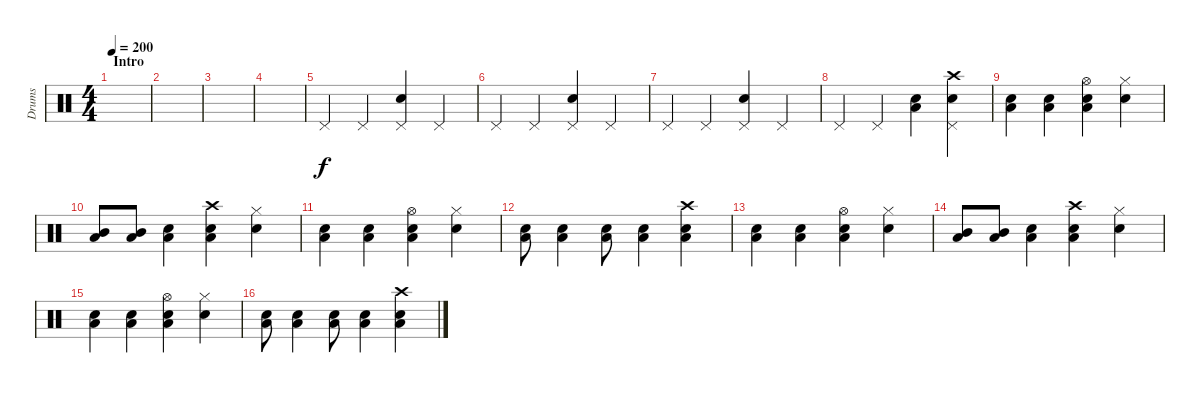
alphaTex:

\track ("Drums" "Drums") {instrument percussion}
\staff {score}
\articulation defaults
\ts (4 4)
\section ("" "Intro")
\tempo 200
\clef neutral
\ks c
|
|
|
|
"Pedal Hi-Hat (hit)".4 "Pedal Hi-Hat (hit)".4 ("Electric Snare (hit)" "Pedal Hi-Hat (hit)").4 "Pedal Hi-Hat (hit)".4 |
"Pedal Hi-Hat (hit)".4 "Pedal Hi-Hat (hit)".4 ("Electric Snare (hit)" "Pedal Hi-Hat (hit)").4 "Pedal Hi-Hat (hit)".4 |
"Pedal Hi-Hat (hit)".4 "Pedal Hi-Hat (hit)".4 ("Electric Snare (hit)" "Pedal Hi-Hat (hit)").4 "Pedal Hi-Hat (hit)".4 |
"Pedal Hi-Hat (hit)".4 "Pedal Hi-Hat (hit)".4 ("Electric Snare (hit)" "Low Tom (hit)").4 ("Electric Snare (hit)" "Pedal Hi-Hat (hit)" "Crash high (hit)").4 |
("Electric Snare (hit)" "Low Tom (hit)").4 ("Electric Snare (hit)" "Low Tom (hit)").4 ("Snare (hit) 2" "Low Tom (hit)" "Hi-Hat (open)").4 ("Electric Snare (hit)" "Hi-Hat (closed)").4 |
("Mid Tom (hit)" "Low Tom (hit)").8 ("Mid Tom (hit)" "Low Tom (hit)").8 ("Snare (hit) 2" "Low Tom (hit)").4 ("Electric Snare (hit)" "Low Tom (hit)" "Crash high (hit)").4 ("Electric Snare (hit)" "Hi-Hat (closed)").4 |
("Electric Snare (hit)" "Low Tom (hit)").4 ("Electric Snare (hit)" "Low Tom (hit)").4 ("Snare (hit) 2" "Low Tom (hit)" "Hi-Hat (open)").4 ("Electric Snare (hit)" "Hi-Hat (closed)").4 |
("Snare (hit) 2" "Low Tom (hit)").8 ("Snare (hit) 2" "Low Tom (hit)").4 ("Snare (hit) 2" "Low Tom (hit)").8 ("Snare (hit) 2" "Low Tom (hit)").4 ("Electric Snare (hit)" "Low Tom (hit)" "Crash high (hit)").4 |
("Electric Snare (hit)" "Low Tom (hit)").4 ("Electric Snare (hit)" "Low Tom (hit)").4 ("Snare (hit) 2" "Low Tom (hit)" "Hi-Hat (open)").4 ("Electric Snare (hit)" "Hi-Hat (closed)").4 |
("Mid Tom (hit)" "Low Tom (hit)").8 ("Mid Tom (hit)" "Low Tom (hit)").8 ("Snare (hit) 2" "Low Tom (hit)").4 ("Electric Snare (hit)" "Low Tom (hit)" "Crash high (hit)").4 ("Electric Snare (hit)" "Hi-Hat (closed)").4 |
("Electric Snare (hit)" "Low Tom (hit)").4 ("Electric Snare (hit)" "Low Tom (hit)").4 ("Snare (hit) 2" "Low Tom (hit)" "Hi-Hat (open)").4 ("Electric Snare (hit)" "Hi-Hat (closed)").4 |
("Snare (hit) 2" "Low Tom (hit)").8 ("Snare (hit) 2" "Low Tom (hit)").4 ("Snare (hit) 2" "Low Tom (hit)").8 ("Snare (hit) 2" "Low Tom (hit)").4 ("Electric Snare (hit)" "Low Tom (hit)" "Crash high (hit)").4
